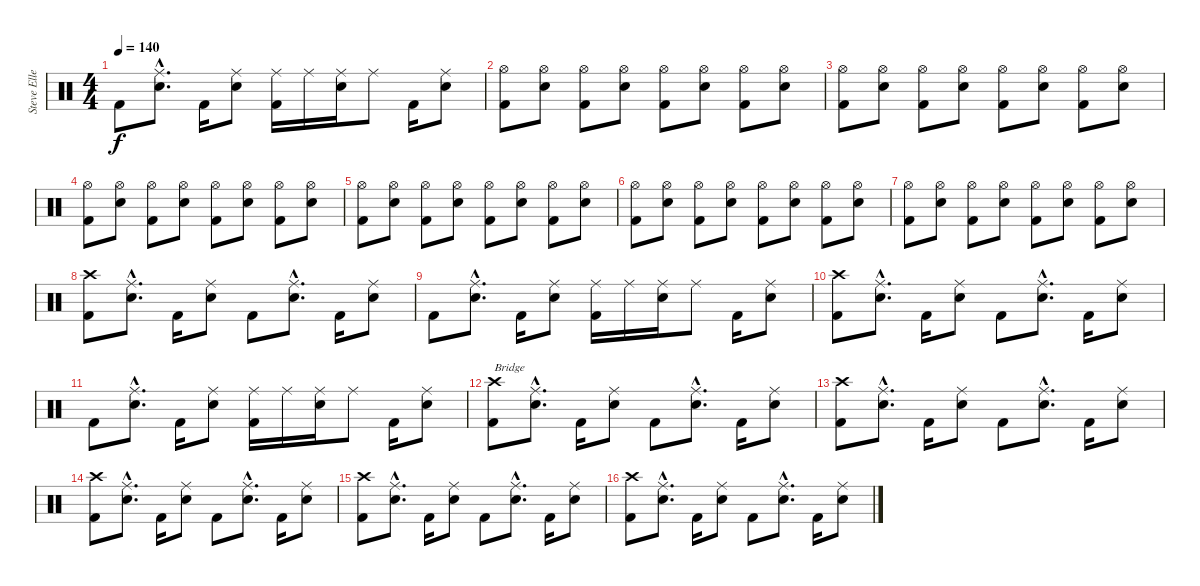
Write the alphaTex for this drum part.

\track ("Steve Ellett" "Steve Elle") {instrument percussion}
\staff {score}
\articulation defaults
\ts (4 4)
\tempo 140
\clef neutral
\ks c "Kick (hit) 2".8{dy f}
("Ride (middle)"{hac} "Snare (hit) 2"{hac}).8{d} "Kick (hit) 2".16 ("Ride (middle)" "Snare (hit) 2").8 ("Ride (middle)" "Kick (hit) 2").16 "Ride (middle)".16 ("Ride (middle)" "Snare (hit) 2").16 "Ride (middle)".8 "Kick (hit) 2".16 ("Ride (middle)" "Snare (hit) 2").8 |
("Hi-Hat (open)" "Kick (hit) 2").8 ("Hi-Hat (open)" "Snare (hit) 2").8 ("Hi-Hat (open)" "Kick (hit) 2").8 ("Hi-Hat (open)" "Snare (hit) 2").8 ("Hi-Hat (open)" "Kick (hit) 2").8 ("Hi-Hat (open)" "Snare (hit) 2").8 ("Hi-Hat (open)" "Kick (hit) 2").8 ("Hi-Hat (open)" "Snare (hit) 2").8 |
("Hi-Hat (open)" "Kick (hit) 2").8 ("Hi-Hat (open)" "Snare (hit) 2").8 ("Hi-Hat (open)" "Kick (hit) 2").8 ("Hi-Hat (open)" "Snare (hit) 2").8 ("Hi-Hat (open)" "Kick (hit) 2").8 ("Hi-Hat (open)" "Snare (hit) 2").8 ("Hi-Hat (open)" "Kick (hit) 2").8 ("Hi-Hat (open)" "Snare (hit) 2").8 |
("Hi-Hat (open)" "Kick (hit) 2").8 ("Hi-Hat (open)" "Snare (hit) 2").8 ("Hi-Hat (open)" "Kick (hit) 2").8 ("Hi-Hat (open)" "Snare (hit) 2").8 ("Hi-Hat (open)" "Kick (hit) 2").8 ("Hi-Hat (open)" "Snare (hit) 2").8 ("Hi-Hat (open)" "Kick (hit) 2").8 ("Hi-Hat (open)" "Snare (hit) 2").8 |
("Hi-Hat (open)" "Kick (hit) 2").8 ("Hi-Hat (open)" "Snare (hit) 2").8 ("Hi-Hat (open)" "Kick (hit) 2").8 ("Hi-Hat (open)" "Snare (hit) 2").8 ("Hi-Hat (open)" "Kick (hit) 2").8 ("Hi-Hat (open)" "Snare (hit) 2").8 ("Hi-Hat (open)" "Kick (hit) 2").8 ("Hi-Hat (open)" "Snare (hit) 2").8 |
("Hi-Hat (open)" "Kick (hit) 2").8 ("Hi-Hat (open)" "Snare (hit) 2").8 ("Hi-Hat (open)" "Kick (hit) 2").8 ("Hi-Hat (open)" "Snare (hit) 2").8 ("Hi-Hat (open)" "Kick (hit) 2").8 ("Hi-Hat (open)" "Snare (hit) 2").8 ("Hi-Hat (open)" "Kick (hit) 2").8 ("Hi-Hat (open)" "Snare (hit) 2").8 |
("Hi-Hat (open)" "Kick (hit) 2").8 ("Hi-Hat (open)" "Snare (hit) 2").8 ("Hi-Hat (open)" "Kick (hit) 2").8 ("Hi-Hat (open)" "Snare (hit) 2").8 ("Hi-Hat (open)" "Kick (hit) 2").8 ("Hi-Hat (open)" "Snare (hit) 2").8 ("Hi-Hat (open)" "Kick (hit) 2").8 ("Hi-Hat (open)" "Snare (hit) 2").8 |
("Crash high (hit)" "Kick (hit) 2").8 ("Ride (middle)"{hac} "Snare (hit) 2"{hac}).8{d} "Kick (hit) 2".16 ("Ride (middle)" "Snare (hit) 2").8 "Kick (hit) 2".8 ("Ride (middle)"{hac} "Snare (hit) 2"{hac}).8{d} "Kick (hit) 2".16 ("Ride (middle)" "Snare (hit) 2").8 |
"Kick (hit) 2".8 ("Ride (middle)"{hac} "Snare (hit) 2"{hac}).8{d} "Kick (hit) 2".16 ("Ride (middle)" "Snare (hit) 2").8 ("Ride (middle)" "Kick (hit) 2").16 "Ride (middle)".16 ("Ride (middle)" "Snare (hit) 2").16 "Ride (middle)".8 "Kick (hit) 2".16 ("Ride (middle)" "Snare (hit) 2").8 |
("Crash high (hit)" "Kick (hit) 2").8 ("Ride (middle)"{hac} "Snare (hit) 2"{hac}).8{d} "Kick (hit) 2".16 ("Ride (middle)" "Snare (hit) 2").8 "Kick (hit) 2".8 ("Ride (middle)"{hac} "Snare (hit) 2"{hac}).8{d} "Kick (hit) 2".16 ("Ride (middle)" "Snare (hit) 2").8 |
"Kick (hit) 2".8 ("Ride (middle)"{hac} "Snare (hit) 2"{hac}).8{d} "Kick (hit) 2".16 ("Ride (middle)" "Snare (hit) 2").8 ("Ride (middle)" "Kick (hit) 2").16 "Ride (middle)".16 ("Ride (middle)" "Snare (hit) 2").16 "Ride (middle)".8 "Kick (hit) 2".16 ("Ride (middle)" "Snare (hit) 2").8 |
("Crash high (hit)" "Kick (hit) 2").8{txt "Bridge"} ("Ride (middle)"{hac} "Snare (hit) 2"{hac}).8{d} "Kick (hit) 2".16 ("Ride (middle)" "Snare (hit) 2").8 "Kick (hit) 2".8 ("Ride (middle)"{hac} "Snare (hit) 2"{hac}).8{d} "Kick (hit) 2".16 ("Ride (middle)" "Snare (hit) 2").8 |
("Crash high (hit)" "Kick (hit) 2").8 ("Ride (middle)"{hac} "Snare (hit) 2"{hac}).8{d} "Kick (hit) 2".16 ("Ride (middle)" "Snare (hit) 2").8 "Kick (hit) 2".8 ("Ride (middle)"{hac} "Snare (hit) 2"{hac}).8{d} "Kick (hit) 2".16 ("Ride (middle)" "Snare (hit) 2").8 |
("Crash high (hit)" "Kick (hit) 2").8 ("Ride (middle)"{hac} "Snare (hit) 2"{hac}).8{d} "Kick (hit) 2".16 ("Ride (middle)" "Snare (hit) 2").8 "Kick (hit) 2".8 ("Ride (middle)"{hac} "Snare (hit) 2"{hac}).8{d} "Kick (hit) 2".16 ("Ride (middle)" "Snare (hit) 2").8 |
("Crash high (hit)" "Kick (hit) 2").8 ("Ride (middle)"{hac} "Snare (hit) 2"{hac}).8{d} "Kick (hit) 2".16 ("Ride (middle)" "Snare (hit) 2").8 "Kick (hit) 2".8 ("Ride (middle)"{hac} "Snare (hit) 2"{hac}).8{d} "Kick (hit) 2".16 ("Ride (middle)" "Snare (hit) 2").8 |
("Crash high (hit)" "Kick (hit) 2").8 ("Ride (middle)"{hac} "Snare (hit) 2"{hac}).8{d} "Kick (hit) 2".16 ("Ride (middle)" "Snare (hit) 2").8 "Kick (hit) 2".8 ("Ride (middle)"{hac} "Snare (hit) 2"{hac}).8{d} "Kick (hit) 2".16 ("Ride (middle)" "Snare (hit) 2").8
